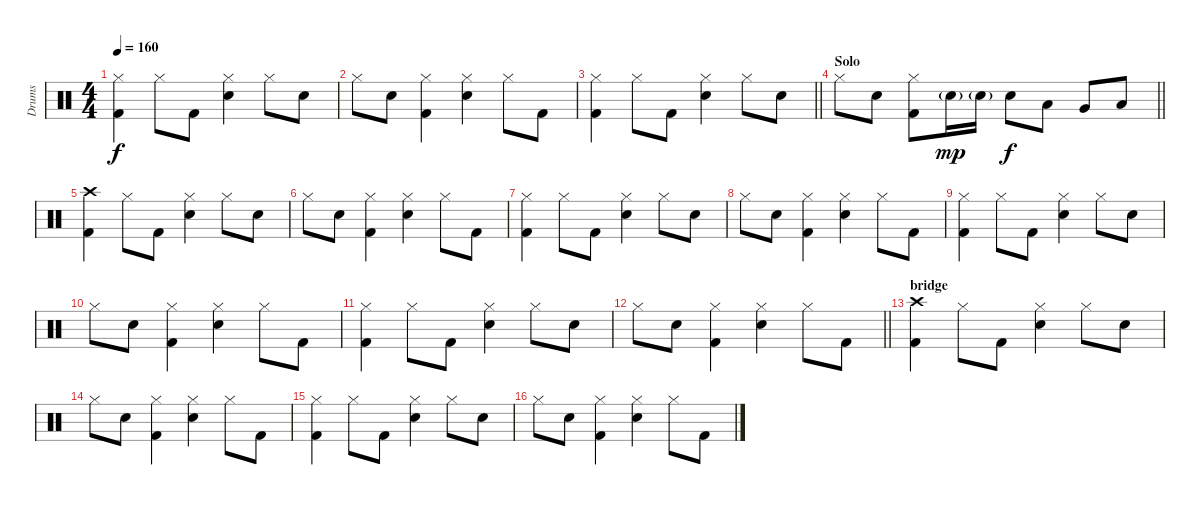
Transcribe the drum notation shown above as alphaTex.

\track ("Drums" "Drums") {instrument percussion}
\staff {score}
\articulation defaults
\ts (4 4)
\tempo 160
\clef neutral
\ks c
("Hi-Hat (closed)" "Kick (hit) 2").4{dy f} "Hi-Hat (closed)".8 "Kick (hit) 2".8 ("Hi-Hat (closed)" "Snare (hit) 2").4 "Hi-Hat (closed)".8 "Snare (hit) 2".8 |
"Hi-Hat (closed)".8 "Snare (hit) 2".8 ("Hi-Hat (closed)" "Kick (hit) 2").4 ("Hi-Hat (closed)" "Snare (hit) 2").4 "Hi-Hat (closed)".8 "Kick (hit) 2".8 |
\barLineRight lightlight
("Hi-Hat (closed)" "Kick (hit) 2").4 "Hi-Hat (closed)".8 "Kick (hit) 2".8 ("Hi-Hat (closed)" "Snare (hit) 2").4 "Hi-Hat (closed)".8 "Snare (hit) 2".8 |
\section ("" "Solo")
\barLineRight lightlight "Hi-Hat (closed)".8 "Snare (hit) 2".8
("Hi-Hat (closed)" "Kick (hit) 2").8 "Snare (hit) 2"{g}.16{dy mp} "Snare (hit) 2"{g}.16 "Snare (hit) 2".8{dy f} "Low Tom (hit)".8 "Very Low Tom (hit)".8 "Low Floor Tom (hit)".8 |
("Crash high (hit)" "Kick (hit) 2").4 "Hi-Hat (closed)".8 "Kick (hit) 2".8 ("Hi-Hat (closed)" "Snare (hit) 2").4 "Hi-Hat (closed)".8 "Snare (hit) 2".8 |
"Hi-Hat (closed)".8 "Snare (hit) 2".8 ("Hi-Hat (closed)" "Kick (hit) 2").4 ("Hi-Hat (closed)" "Snare (hit) 2").4 "Hi-Hat (closed)".8 "Kick (hit) 2".8 |
("Hi-Hat (closed)" "Kick (hit) 2").4 "Hi-Hat (closed)".8 "Kick (hit) 2".8 ("Hi-Hat (closed)" "Snare (hit) 2").4 "Hi-Hat (closed)".8 "Snare (hit) 2".8 |
"Hi-Hat (closed)".8 "Snare (hit) 2".8 ("Hi-Hat (closed)" "Kick (hit) 2").4 ("Hi-Hat (closed)" "Snare (hit) 2").4 "Hi-Hat (closed)".8 "Kick (hit) 2".8 |
("Hi-Hat (closed)" "Kick (hit) 2").4 "Hi-Hat (closed)".8 "Kick (hit) 2".8 ("Hi-Hat (closed)" "Snare (hit) 2").4 "Hi-Hat (closed)".8 "Snare (hit) 2".8 |
"Hi-Hat (closed)".8 "Snare (hit) 2".8 ("Hi-Hat (closed)" "Kick (hit) 2").4 ("Hi-Hat (closed)" "Snare (hit) 2").4 "Hi-Hat (closed)".8 "Kick (hit) 2".8 |
("Hi-Hat (closed)" "Kick (hit) 2").4 "Hi-Hat (closed)".8 "Kick (hit) 2".8 ("Hi-Hat (closed)" "Snare (hit) 2").4 "Hi-Hat (closed)".8 "Snare (hit) 2".8 |
\barLineRight lightlight "Hi-Hat (closed)".8 "Snare (hit) 2".8
("Hi-Hat (closed)" "Kick (hit) 2").4 ("Hi-Hat (closed)" "Snare (hit) 2").4 "Hi-Hat (closed)".8 "Kick (hit) 2".8 |
\section ("" "bridge")
("Crash high (hit)" "Kick (hit) 2").4 "Hi-Hat (closed)".8 "Kick (hit) 2".8 ("Hi-Hat (closed)" "Snare (hit) 2").4 "Hi-Hat (closed)".8 "Snare (hit) 2".8 |
"Hi-Hat (closed)".8 "Snare (hit) 2".8 ("Hi-Hat (closed)" "Kick (hit) 2").4 ("Hi-Hat (closed)" "Snare (hit) 2").4 "Hi-Hat (closed)".8 "Kick (hit) 2".8 |
("Hi-Hat (closed)" "Kick (hit) 2").4 "Hi-Hat (closed)".8 "Kick (hit) 2".8 ("Hi-Hat (closed)" "Snare (hit) 2").4 "Hi-Hat (closed)".8 "Snare (hit) 2".8 |
"Hi-Hat (closed)".8 "Snare (hit) 2".8 ("Hi-Hat (closed)" "Kick (hit) 2").4 ("Hi-Hat (closed)" "Snare (hit) 2").4 "Hi-Hat (closed)".8 "Kick (hit) 2".8
